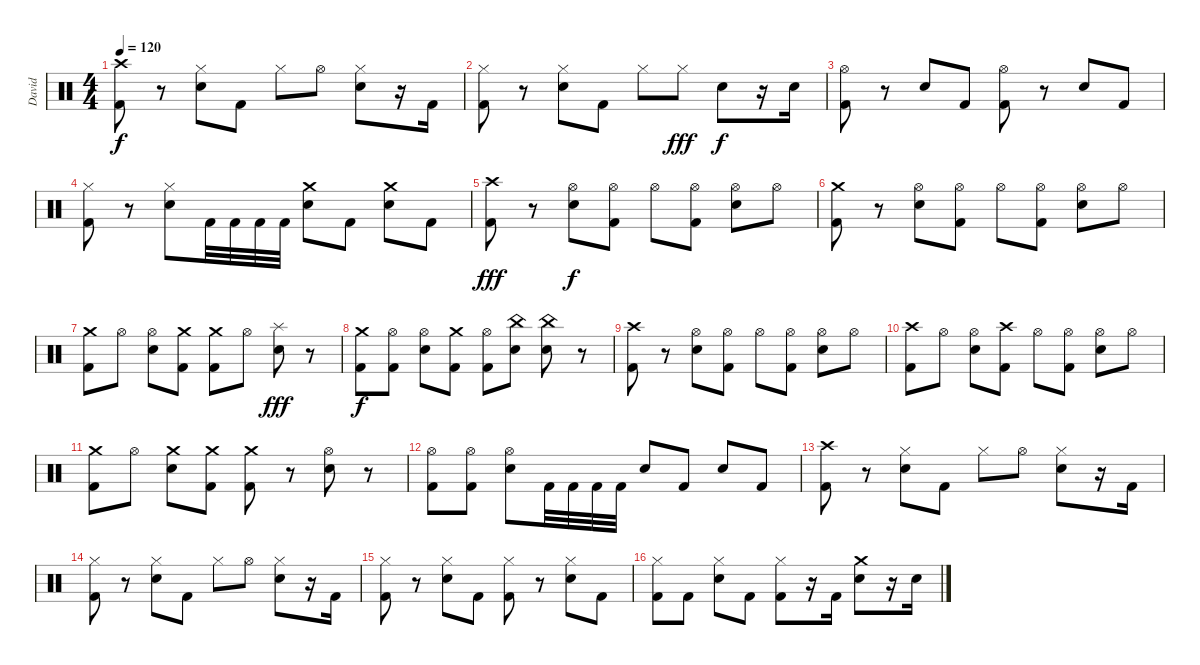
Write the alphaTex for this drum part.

\track ("David" "David") {instrument percussion}
\staff {score}
\articulation defaults
\ts (4 4)
\tempo 120
\clef neutral
\ks c
("Crash high (hit)" "Kick (hit) 2").8{dy f} r.8 ("Hi-Hat (closed)" "Electric Snare (hit)").8 "Kick (hit) 2".8 "Hi-Hat (closed)".8 "Hi-Hat (open)".8 ("Hi-Hat (closed)" "Electric Snare (hit)").8 r.16 "Kick (hit) 2".16 |
("Hi-Hat (closed)" "Kick (hit) 2").8 r.8 ("Hi-Hat (closed)" "Electric Snare (hit)").8 "Kick (hit) 2".8 "Hi-Hat (closed)".8 "Hi-Hat (closed)".8{dy fff} "Electric Snare (hit)".8{dy f} r.16 "Electric Snare (hit)".16 |
("Hi-Hat (open)" "Kick (hit) 2").8 r.8 "Electric Snare (hit)".8 "Kick (hit) 2".8 ("Hi-Hat (open)" "Kick (hit) 2").8 r.8 "Electric Snare (hit)".8 "Kick (hit) 2".8 |
("Hi-Hat (closed)" "Kick (hit) 2").8 r.8 ("Hi-Hat (closed)" "Electric Snare (hit)").8 "Kick (hit) 2".32 "Kick (hit) 2".32 "Kick (hit) 2".32 "Kick (hit) 2".32 ("Crash medium (hit)" "Electric Snare (hit)").8 "Kick (hit) 2".8 ("Crash medium (hit)" "Electric Snare (hit)").8 "Kick (hit) 2".8 |
("Crash high (hit)" "Kick (hit) 2").8{dy fff} r.8 ("Hi-Hat (open)" "Electric Snare (hit)").8{dy f} ("Hi-Hat (open)" "Kick (hit) 2").8 "Hi-Hat (open)".8 ("Hi-Hat (open)" "Kick (hit) 2").8 ("Hi-Hat (open)" "Electric Snare (hit)").8 "Hi-Hat (open)".8 |
("Crash medium (hit)" "Kick (hit) 2").8 r.8 ("Hi-Hat (open)" "Electric Snare (hit)").8 ("Hi-Hat (open)" "Kick (hit) 2").8 "Hi-Hat (open)".8 ("Hi-Hat (open)" "Kick (hit) 2").8 ("Hi-Hat (open)" "Electric Snare (hit)").8 "Hi-Hat (open)".8 |
("Crash medium (hit)" "Kick (hit) 2").8 "Hi-Hat (open)".8 ("Hi-Hat (open)" "Electric Snare (hit)").8 ("Crash medium (hit)" "Kick (hit) 2").8 ("Crash medium (hit)" "Kick (hit) 2").8 "Hi-Hat (open)".8 ("Splash (hit)" "Electric Snare (hit)").8{dy fff} r.8 |
("Crash medium (hit)" "Kick (hit) 2").8{dy f} ("Hi-Hat (open)" "Kick (hit) 2").8 ("Hi-Hat (open)" "Electric Snare (hit)").8 ("Crash medium (hit)" "Kick (hit) 2").8 ("Hi-Hat (open)" "Kick (hit) 2").8 ("China (hit)" "Electric Snare (hit)").8 ("China (hit)" "Electric Snare (hit)").8 r.8 |
("Crash high (hit)" "Kick (hit) 2").8 r.8 ("Hi-Hat (open)" "Electric Snare (hit)").8 ("Hi-Hat (open)" "Kick (hit) 2").8 "Hi-Hat (open)".8 ("Hi-Hat (open)" "Kick (hit) 2").8 ("Hi-Hat (open)" "Electric Snare (hit)").8 "Hi-Hat (open)".8 |
("Crash high (hit)" "Kick (hit) 2").8 "Hi-Hat (open)".8 ("Hi-Hat (open)" "Electric Snare (hit)").8 ("Crash high (hit)" "Kick (hit) 2").8 "Hi-Hat (open)".8 ("Hi-Hat (open)" "Kick (hit) 2").8 ("Hi-Hat (open)" "Electric Snare (hit)").8 "Hi-Hat (open)".8 |
("Crash medium (hit)" "Kick (hit) 2").8 "Hi-Hat (open)".8 ("Crash medium (hit)" "Electric Snare (hit)").8 ("Crash medium (hit)" "Kick (hit) 2").8 ("Crash medium (hit)" "Kick (hit) 2").8 r.8 ("Hi-Hat (open)" "Electric Snare (hit)").8 r.8 |
("Hi-Hat (open)" "Kick (hit) 2").8 ("Hi-Hat (open)" "Kick (hit) 2").8 ("Hi-Hat (open)" "Electric Snare (hit)").8 "Kick (hit) 2".32 "Kick (hit) 2".32 "Kick (hit) 2".32 "Kick (hit) 2".32 "Electric Snare (hit)".8 "Kick (hit) 2".8 "Electric Snare (hit)".8 "Kick (hit) 2".8 |
("Crash high (hit)" "Kick (hit) 2").8 r.8 ("Hi-Hat (closed)" "Electric Snare (hit)").8 "Kick (hit) 2".8 "Hi-Hat (closed)".8 "Hi-Hat (open)".8 ("Hi-Hat (closed)" "Electric Snare (hit)").8 r.16 "Kick (hit) 2".16 |
("Hi-Hat (closed)" "Kick (hit) 2").8 r.8 ("Hi-Hat (closed)" "Electric Snare (hit)").8 "Kick (hit) 2".8 "Hi-Hat (closed)".8 "Hi-Hat (open)".8 ("Hi-Hat (closed)" "Electric Snare (hit)").8 r.16 "Kick (hit) 2".16 |
("Hi-Hat (closed)" "Kick (hit) 2").8 r.8 ("Hi-Hat (closed)" "Electric Snare (hit)").8 "Kick (hit) 2".8 ("Hi-Hat (closed)" "Kick (hit) 2").8 r.8 ("Hi-Hat (closed)" "Electric Snare (hit)").8 "Kick (hit) 2".8 |
("Hi-Hat (closed)" "Kick (hit) 2").8 "Kick (hit) 2".8 ("Hi-Hat (closed)" "Electric Snare (hit)").8 "Kick (hit) 2".8 ("Hi-Hat (closed)" "Kick (hit) 2").8 r.16 "Kick (hit) 2".16 ("Crash medium (hit)" "Electric Snare (hit)").8 r.16 "Electric Snare (hit)".16
